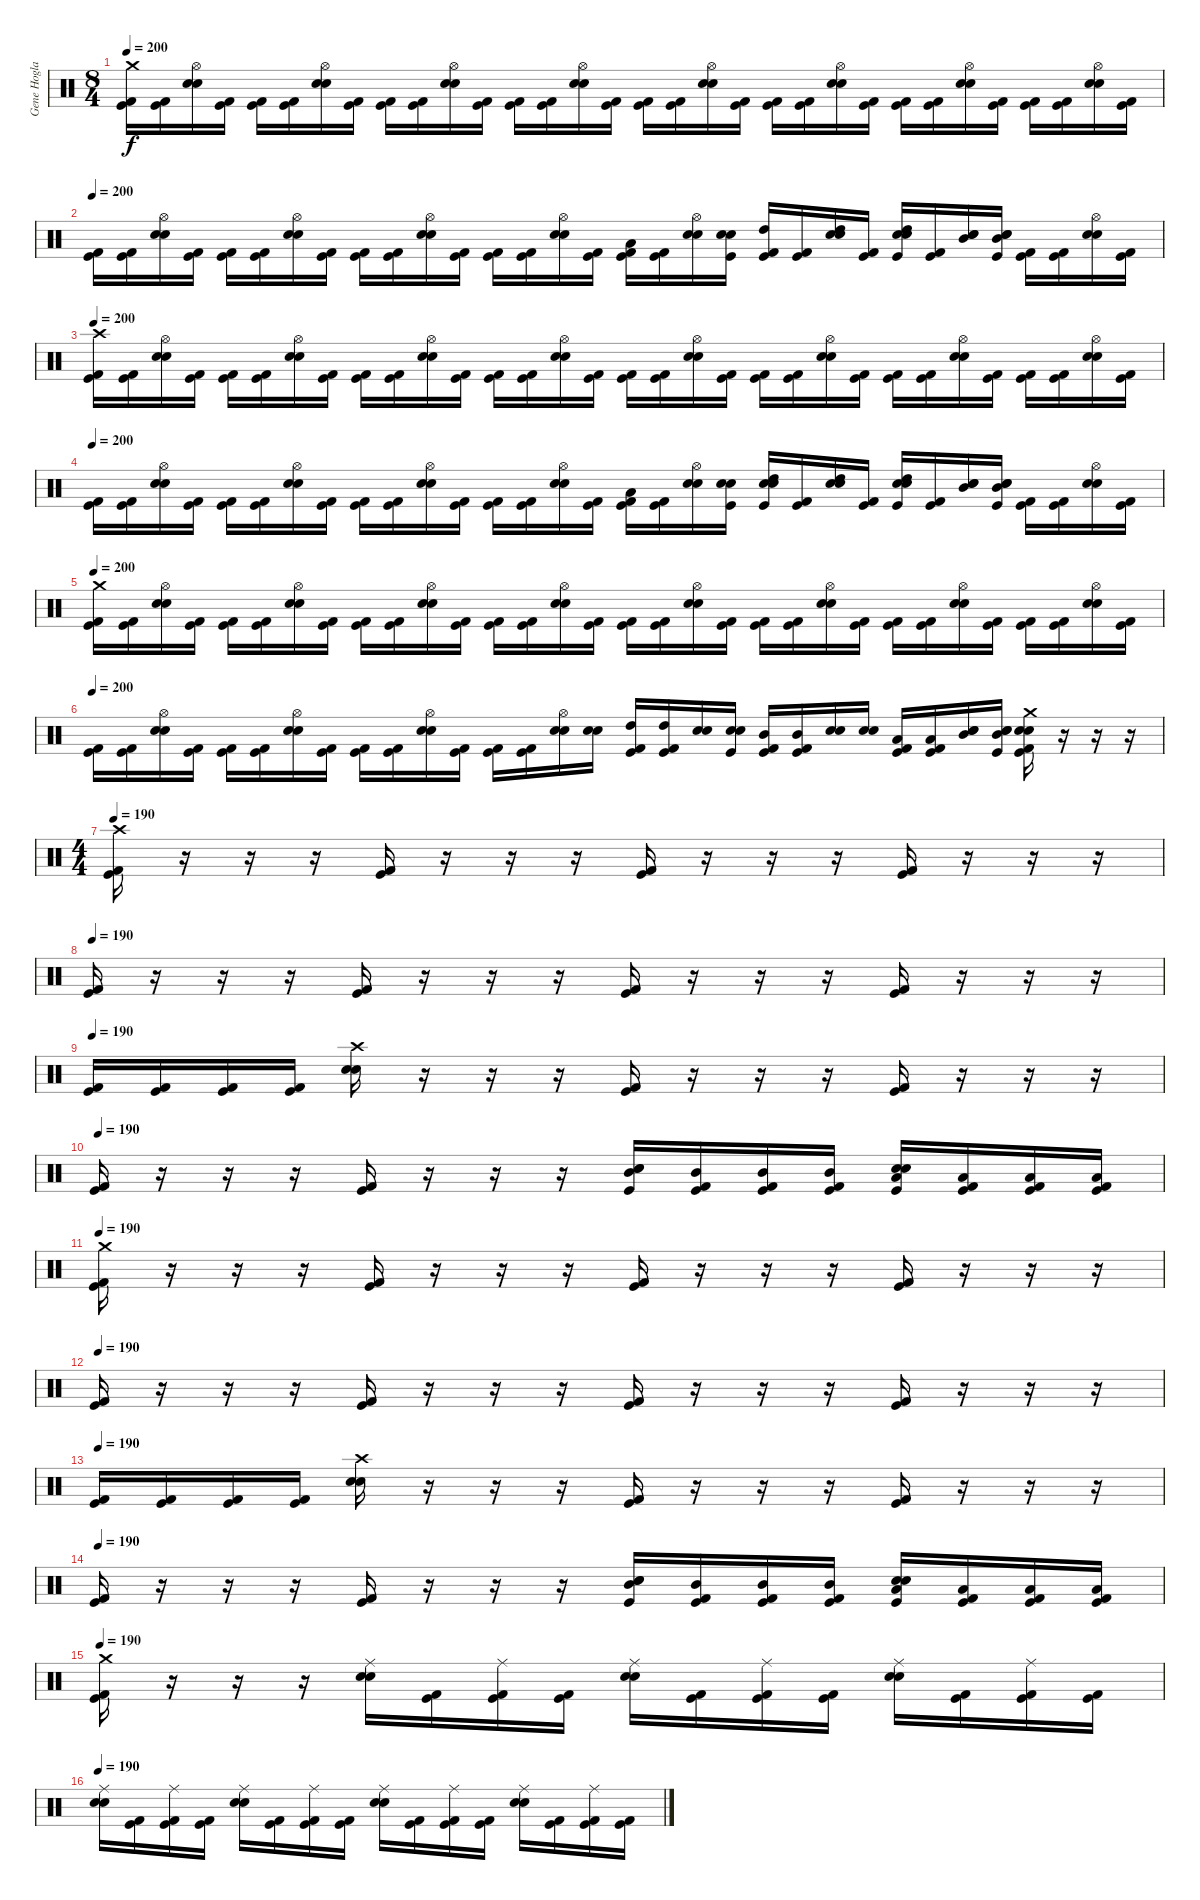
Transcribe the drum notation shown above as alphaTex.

\track ("Gene Hoglan" "Gene Hogla") {instrument percussion}
\staff {score}
\articulation defaults
\ts (8 4)
\tempo 200
\clef neutral
\ks c
("Crash medium (hit)" "Kick (hit) 2" "Kick (hit)").16{dy f} ("Kick (hit) 2" "Kick (hit)").16 ("Hi-Hat (open)" "Snare (hit) 2" "Electric Snare (hit)").16 ("Kick (hit) 2" "Kick (hit)").16 ("Kick (hit) 2" "Kick (hit)").16 ("Kick (hit) 2" "Kick (hit)").16 ("Hi-Hat (open)" "Snare (hit) 2" "Electric Snare (hit)").16 ("Kick (hit) 2" "Kick (hit)").16 ("Kick (hit) 2" "Kick (hit)").16 ("Kick (hit) 2" "Kick (hit)").16 ("Hi-Hat (open)" "Snare (hit) 2" "Electric Snare (hit)").16 ("Kick (hit) 2" "Kick (hit)").16 ("Kick (hit) 2" "Kick (hit)").16 ("Kick (hit) 2" "Kick (hit)").16 ("Hi-Hat (open)" "Snare (hit) 2" "Electric Snare (hit)").16 ("Kick (hit) 2" "Kick (hit)").16 ("Kick (hit) 2" "Kick (hit)").16 ("Kick (hit) 2" "Kick (hit)").16 ("Hi-Hat (open)" "Snare (hit) 2" "Electric Snare (hit)").16 ("Kick (hit) 2" "Kick (hit)").16 ("Kick (hit) 2" "Kick (hit)").16 ("Kick (hit) 2" "Kick (hit)").16 ("Hi-Hat (open)" "Snare (hit) 2" "Electric Snare (hit)").16 ("Kick (hit) 2" "Kick (hit)").16 ("Kick (hit) 2" "Kick (hit)").16 ("Kick (hit) 2" "Kick (hit)").16 ("Hi-Hat (open)" "Snare (hit) 2" "Electric Snare (hit)").16 ("Kick (hit) 2" "Kick (hit)").16 ("Kick (hit) 2" "Kick (hit)").16 ("Kick (hit) 2" "Kick (hit)").16 ("Hi-Hat (open)" "Snare (hit) 2" "Electric Snare (hit)").16 ("Kick (hit) 2" "Kick (hit)").16 |
\tempo 200
("Kick (hit) 2" "Kick (hit)").16 ("Kick (hit) 2" "Kick (hit)").16 ("Hi-Hat (open)" "Snare (hit) 2" "Electric Snare (hit)").16 ("Kick (hit) 2" "Kick (hit)").16 ("Kick (hit) 2" "Kick (hit)").16 ("Kick (hit) 2" "Kick (hit)").16 ("Hi-Hat (open)" "Snare (hit) 2" "Electric Snare (hit)").16 ("Kick (hit) 2" "Kick (hit)").16 ("Kick (hit) 2" "Kick (hit)").16 ("Kick (hit) 2" "Kick (hit)").16 ("Hi-Hat (open)" "Snare (hit) 2" "Electric Snare (hit)").16 ("Kick (hit) 2" "Kick (hit)").16 ("Kick (hit) 2" "Kick (hit)").16 ("Kick (hit) 2" "Kick (hit)").16 ("Hi-Hat (open)" "Snare (hit) 2" "Electric Snare (hit)").16 ("Kick (hit) 2" "Kick (hit)").16 ("Low Tom (hit)" "Kick (hit) 2" "Kick (hit)").16 ("Kick (hit) 2" "Kick (hit)").16 ("Hi-Hat (open)" "Snare (hit) 2" "Electric Snare (hit)").16 ("Snare (hit) 2" "Electric Snare (hit)" "Kick (hit)").16 ("High Tom (hit)" "Kick (hit) 2" "Kick (hit)").16 ("Kick (hit) 2" "Kick (hit)").16 ("High Tom (hit)" "Snare (hit) 2" "Electric Snare (hit)").16 ("Kick (hit) 2" "Kick (hit)").16 ("High Tom (hit)" "Snare (hit) 2" "Electric Snare (hit)" "Kick (hit)").16 ("Kick (hit) 2" "Kick (hit)").16 ("Mid Tom (hit)" "Snare (hit) 2" "Electric Snare (hit)").16 ("Mid Tom (hit)" "Snare (hit) 2" "Electric Snare (hit)" "Kick (hit)").16 ("Kick (hit) 2" "Kick (hit)").16 ("Kick (hit) 2" "Kick (hit)").16 ("Hi-Hat (open)" "Snare (hit) 2" "Electric Snare (hit)").16 ("Kick (hit) 2" "Kick (hit)").16 |
\tempo 200
("Crash high (hit)" "Kick (hit) 2" "Kick (hit)").16 ("Kick (hit) 2" "Kick (hit)").16 ("Hi-Hat (open)" "Snare (hit) 2" "Electric Snare (hit)").16 ("Kick (hit) 2" "Kick (hit)").16 ("Kick (hit) 2" "Kick (hit)").16 ("Kick (hit) 2" "Kick (hit)").16 ("Hi-Hat (open)" "Snare (hit) 2" "Electric Snare (hit)").16 ("Kick (hit) 2" "Kick (hit)").16 ("Kick (hit) 2" "Kick (hit)").16 ("Kick (hit) 2" "Kick (hit)").16 ("Hi-Hat (open)" "Snare (hit) 2" "Electric Snare (hit)").16 ("Kick (hit) 2" "Kick (hit)").16 ("Kick (hit) 2" "Kick (hit)").16 ("Kick (hit) 2" "Kick (hit)").16 ("Hi-Hat (open)" "Snare (hit) 2" "Electric Snare (hit)").16 ("Kick (hit) 2" "Kick (hit)").16 ("Kick (hit) 2" "Kick (hit)").16 ("Kick (hit) 2" "Kick (hit)").16 ("Hi-Hat (open)" "Snare (hit) 2" "Electric Snare (hit)").16 ("Kick (hit) 2" "Kick (hit)").16 ("Kick (hit) 2" "Kick (hit)").16 ("Kick (hit) 2" "Kick (hit)").16 ("Hi-Hat (open)" "Snare (hit) 2" "Electric Snare (hit)").16 ("Kick (hit) 2" "Kick (hit)").16 ("Kick (hit) 2" "Kick (hit)").16 ("Kick (hit) 2" "Kick (hit)").16 ("Hi-Hat (open)" "Snare (hit) 2" "Electric Snare (hit)").16 ("Kick (hit) 2" "Kick (hit)").16 ("Kick (hit) 2" "Kick (hit)").16 ("Kick (hit) 2" "Kick (hit)").16 ("Hi-Hat (open)" "Snare (hit) 2" "Electric Snare (hit)").16 ("Kick (hit) 2" "Kick (hit)").16 |
\tempo 200
("Kick (hit) 2" "Kick (hit)").16 ("Kick (hit) 2" "Kick (hit)").16 ("Hi-Hat (open)" "Snare (hit) 2" "Electric Snare (hit)").16 ("Kick (hit) 2" "Kick (hit)").16 ("Kick (hit) 2" "Kick (hit)").16 ("Kick (hit) 2" "Kick (hit)").16 ("Hi-Hat (open)" "Snare (hit) 2" "Electric Snare (hit)").16 ("Kick (hit) 2" "Kick (hit)").16 ("Kick (hit) 2" "Kick (hit)").16 ("Kick (hit) 2" "Kick (hit)").16 ("Hi-Hat (open)" "Snare (hit) 2" "Electric Snare (hit)").16 ("Kick (hit) 2" "Kick (hit)").16 ("Kick (hit) 2" "Kick (hit)").16 ("Kick (hit) 2" "Kick (hit)").16 ("Hi-Hat (open)" "Snare (hit) 2" "Electric Snare (hit)").16 ("Kick (hit) 2" "Kick (hit)").16 ("Low Tom (hit)" "Kick (hit) 2" "Kick (hit)").16 ("Kick (hit) 2" "Kick (hit)").16 ("Hi-Hat (open)" "Snare (hit) 2" "Electric Snare (hit)").16 ("Snare (hit) 2" "Electric Snare (hit)" "Kick (hit)").16 ("High Tom (hit)" "Snare (hit) 2" "Electric Snare (hit)" "Kick (hit)").16 ("Kick (hit) 2" "Kick (hit)").16 ("High Tom (hit)" "Snare (hit) 2" "Electric Snare (hit)").16 ("Kick (hit) 2" "Kick (hit)").16 ("High Tom (hit)" "Snare (hit) 2" "Electric Snare (hit)" "Kick (hit)").16 ("Kick (hit) 2" "Kick (hit)").16 ("Mid Tom (hit)" "Snare (hit) 2" "Electric Snare (hit)").16 ("Mid Tom (hit)" "Snare (hit) 2" "Electric Snare (hit)" "Kick (hit)").16 ("Kick (hit) 2" "Kick (hit)").16 ("Kick (hit) 2" "Kick (hit)").16 ("Hi-Hat (open)" "Snare (hit) 2" "Electric Snare (hit)").16 ("Kick (hit) 2" "Kick (hit)").16 |
\tempo 200
("Crash medium (hit)" "Kick (hit) 2" "Kick (hit)").16 ("Kick (hit) 2" "Kick (hit)").16 ("Hi-Hat (open)" "Snare (hit) 2" "Electric Snare (hit)").16 ("Kick (hit) 2" "Kick (hit)").16 ("Kick (hit) 2" "Kick (hit)").16 ("Kick (hit) 2" "Kick (hit)").16 ("Hi-Hat (open)" "Snare (hit) 2" "Electric Snare (hit)").16 ("Kick (hit) 2" "Kick (hit)").16 ("Kick (hit) 2" "Kick (hit)").16 ("Kick (hit) 2" "Kick (hit)").16 ("Hi-Hat (open)" "Snare (hit) 2" "Electric Snare (hit)").16 ("Kick (hit) 2" "Kick (hit)").16 ("Kick (hit) 2" "Kick (hit)").16 ("Kick (hit) 2" "Kick (hit)").16 ("Hi-Hat (open)" "Snare (hit) 2" "Electric Snare (hit)").16 ("Kick (hit) 2" "Kick (hit)").16 ("Kick (hit) 2" "Kick (hit)").16 ("Kick (hit) 2" "Kick (hit)").16 ("Hi-Hat (open)" "Snare (hit) 2" "Electric Snare (hit)").16 ("Kick (hit) 2" "Kick (hit)").16 ("Kick (hit) 2" "Kick (hit)").16 ("Kick (hit) 2" "Kick (hit)").16 ("Hi-Hat (open)" "Snare (hit) 2" "Electric Snare (hit)").16 ("Kick (hit) 2" "Kick (hit)").16 ("Kick (hit) 2" "Kick (hit)").16 ("Kick (hit) 2" "Kick (hit)").16 ("Hi-Hat (open)" "Snare (hit) 2" "Electric Snare (hit)").16 ("Kick (hit) 2" "Kick (hit)").16 ("Kick (hit) 2" "Kick (hit)").16 ("Kick (hit) 2" "Kick (hit)").16 ("Hi-Hat (open)" "Snare (hit) 2" "Electric Snare (hit)").16 ("Kick (hit) 2" "Kick (hit)").16 |
\tempo 200
("Kick (hit) 2" "Kick (hit)").16 ("Kick (hit) 2" "Kick (hit)").16 ("Hi-Hat (open)" "Snare (hit) 2" "Electric Snare (hit)").16 ("Kick (hit) 2" "Kick (hit)").16 ("Kick (hit) 2" "Kick (hit)").16 ("Kick (hit) 2" "Kick (hit)").16 ("Hi-Hat (open)" "Snare (hit) 2" "Electric Snare (hit)").16 ("Kick (hit) 2" "Kick (hit)").16 ("Kick (hit) 2" "Kick (hit)").16 ("Kick (hit) 2" "Kick (hit)").16 ("Hi-Hat (open)" "Snare (hit) 2" "Electric Snare (hit)").16 ("Kick (hit) 2" "Kick (hit)").16 ("Kick (hit) 2" "Kick (hit)").16 ("Kick (hit) 2" "Kick (hit)").16 ("Hi-Hat (open)" "Snare (hit) 2" "Electric Snare (hit)").16 ("Snare (hit) 2" "Electric Snare (hit)").16 ("High Tom (hit)" "Kick (hit) 2" "Kick (hit)").16 ("High Tom (hit)" "Kick (hit) 2" "Kick (hit)").16 ("Snare (hit) 2" "Electric Snare (hit)").16 ("Snare (hit) 2" "Electric Snare (hit)" "Kick (hit)").16 ("Mid Tom (hit)" "Kick (hit) 2" "Kick (hit)").16 ("Mid Tom (hit)" "Kick (hit) 2" "Kick (hit)").16 ("Snare (hit) 2" "Electric Snare (hit)").16 ("Snare (hit) 2" "Electric Snare (hit)").16 ("Low Tom (hit)" "Kick (hit) 2" "Kick (hit)").16 ("Low Tom (hit)" "Kick (hit) 2" "Kick (hit)").16 ("Mid Tom (hit)" "Snare (hit) 2" "Electric Snare (hit)").16 ("Mid Tom (hit)" "Snare (hit) 2" "Electric Snare (hit)" "Kick (hit)").16 ("Crash medium (hit)" "Snare (hit) 2" "Electric Snare (hit)" "Kick (hit) 2" "Kick (hit)").16 r.16 r.16 r.16 |
\ts (4 4)
\tempo 190
("Crash high (hit)" "Kick (hit)" "Kick (hit) 2").16 r.16 r.16 r.16 ("Kick (hit)" "Kick (hit) 2").16 r.16 r.16 r.16 ("Kick (hit)" "Kick (hit) 2").16 r.16 r.16 r.16 ("Kick (hit)" "Kick (hit) 2").16 r.16 r.16 r.16 |
\tempo 190
("Kick (hit)" "Kick (hit) 2").16 r.16 r.16 r.16 ("Kick (hit)" "Kick (hit) 2").16 r.16 r.16 r.16 ("Kick (hit)" "Kick (hit) 2").16 r.16 r.16 r.16 ("Kick (hit)" "Kick (hit) 2").16 r.16 r.16 r.16 |
\tempo 190
("Kick (hit) 2" "Kick (hit)").16 ("Kick (hit) 2" "Kick (hit)").16 ("Kick (hit) 2" "Kick (hit)").16 ("Kick (hit) 2" "Kick (hit)").16 ("Crash high (hit)" "Snare (hit) 2" "Electric Snare (hit)").16 r.16 r.16 r.16 ("Kick (hit) 2" "Kick (hit)").16 r.16 r.16 r.16 ("Kick (hit) 2" "Kick (hit)").16 r.16 r.16 r.16 |
\tempo 190
("Kick (hit)" "Kick (hit) 2").16 r.16 r.16 r.16 ("Kick (hit)" "Kick (hit) 2").16 r.16 r.16 r.16 ("Mid Tom (hit)" "Snare (hit) 2" "Electric Snare (hit)" "Kick (hit)").16 ("Mid Tom (hit)" "Kick (hit) 2" "Kick (hit)").16 ("Mid Tom (hit)" "Kick (hit) 2" "Kick (hit)").16 ("Mid Tom (hit)" "Kick (hit) 2" "Kick (hit)").16 ("Low Tom (hit)" "Snare (hit) 2" "Electric Snare (hit)" "Kick (hit)").16 ("Low Tom (hit)" "Kick (hit) 2" "Kick (hit)").16 ("Low Tom (hit)" "Kick (hit) 2" "Kick (hit)").16 ("Low Tom (hit)" "Kick (hit) 2" "Kick (hit)").16 |
\tempo 190
("Crash medium (hit)" "Kick (hit)" "Kick (hit) 2").16 r.16 r.16 r.16 ("Kick (hit)" "Kick (hit) 2").16 r.16 r.16 r.16 ("Kick (hit)" "Kick (hit) 2").16 r.16 r.16 r.16 ("Kick (hit)" "Kick (hit) 2").16 r.16 r.16 r.16 |
\tempo 190
("Kick (hit)" "Kick (hit) 2").16 r.16 r.16 r.16 ("Kick (hit)" "Kick (hit) 2").16 r.16 r.16 r.16 ("Kick (hit)" "Kick (hit) 2").16 r.16 r.16 r.16 ("Kick (hit)" "Kick (hit) 2").16 r.16 r.16 r.16 |
\tempo 190
("Kick (hit) 2" "Kick (hit)").16 ("Kick (hit) 2" "Kick (hit)").16 ("Kick (hit) 2" "Kick (hit)").16 ("Kick (hit) 2" "Kick (hit)").16 ("Crash high (hit)" "Snare (hit) 2" "Electric Snare (hit)").16 r.16 r.16 r.16 ("Kick (hit) 2" "Kick (hit)").16 r.16 r.16 r.16 ("Kick (hit) 2" "Kick (hit)").16 r.16 r.16 r.16 |
\tempo 190
("Kick (hit)" "Kick (hit) 2").16 r.16 r.16 r.16 ("Kick (hit)" "Kick (hit) 2").16 r.16 r.16 r.16 ("Mid Tom (hit)" "Snare (hit) 2" "Electric Snare (hit)" "Kick (hit)").16 ("Mid Tom (hit)" "Kick (hit) 2" "Kick (hit)").16 ("Mid Tom (hit)" "Kick (hit) 2" "Kick (hit)").16 ("Mid Tom (hit)" "Kick (hit) 2" "Kick (hit)").16 ("Low Tom (hit)" "Snare (hit) 2" "Electric Snare (hit)" "Kick (hit)").16 ("Low Tom (hit)" "Kick (hit) 2" "Kick (hit)").16 ("Low Tom (hit)" "Kick (hit) 2" "Kick (hit)").16 ("Low Tom (hit)" "Kick (hit) 2" "Kick (hit)").16 |
\tempo 190
("Crash medium (hit)" "Kick (hit) 2" "Kick (hit)").16 r.16 r.16 r.16 ("Ride (middle)" "Snare (hit) 2" "Electric Snare (hit)").16 ("Kick (hit) 2" "Kick (hit)").16 ("Ride (middle)" "Kick (hit) 2" "Kick (hit)").16 ("Kick (hit) 2" "Kick (hit)").16 ("Ride (middle)" "Snare (hit) 2" "Electric Snare (hit)").16 ("Kick (hit) 2" "Kick (hit)").16 ("Ride (middle)" "Kick (hit) 2" "Kick (hit)").16 ("Kick (hit) 2" "Kick (hit)").16 ("Ride (middle)" "Snare (hit) 2" "Electric Snare (hit)").16 ("Kick (hit) 2" "Kick (hit)").16 ("Ride (middle)" "Kick (hit) 2" "Kick (hit)").16 ("Kick (hit) 2" "Kick (hit)").16 |
\tempo 190
("Ride (middle)" "Snare (hit) 2" "Electric Snare (hit)").16 ("Kick (hit) 2" "Kick (hit)").16 ("Ride (middle)" "Kick (hit) 2" "Kick (hit)").16 ("Kick (hit) 2" "Kick (hit)").16 ("Ride (middle)" "Snare (hit) 2" "Electric Snare (hit)").16 ("Kick (hit) 2" "Kick (hit)").16 ("Ride (middle)" "Kick (hit) 2" "Kick (hit)").16 ("Kick (hit) 2" "Kick (hit)").16 ("Ride (middle)" "Snare (hit) 2" "Electric Snare (hit)").16 ("Kick (hit) 2" "Kick (hit)").16 ("Ride (middle)" "Kick (hit) 2" "Kick (hit)").16 ("Kick (hit) 2" "Kick (hit)").16 ("Ride (middle)" "Snare (hit) 2" "Electric Snare (hit)").16 ("Kick (hit) 2" "Kick (hit)").16 ("Ride (middle)" "Kick (hit) 2" "Kick (hit)").16 ("Kick (hit) 2" "Kick (hit)").16
